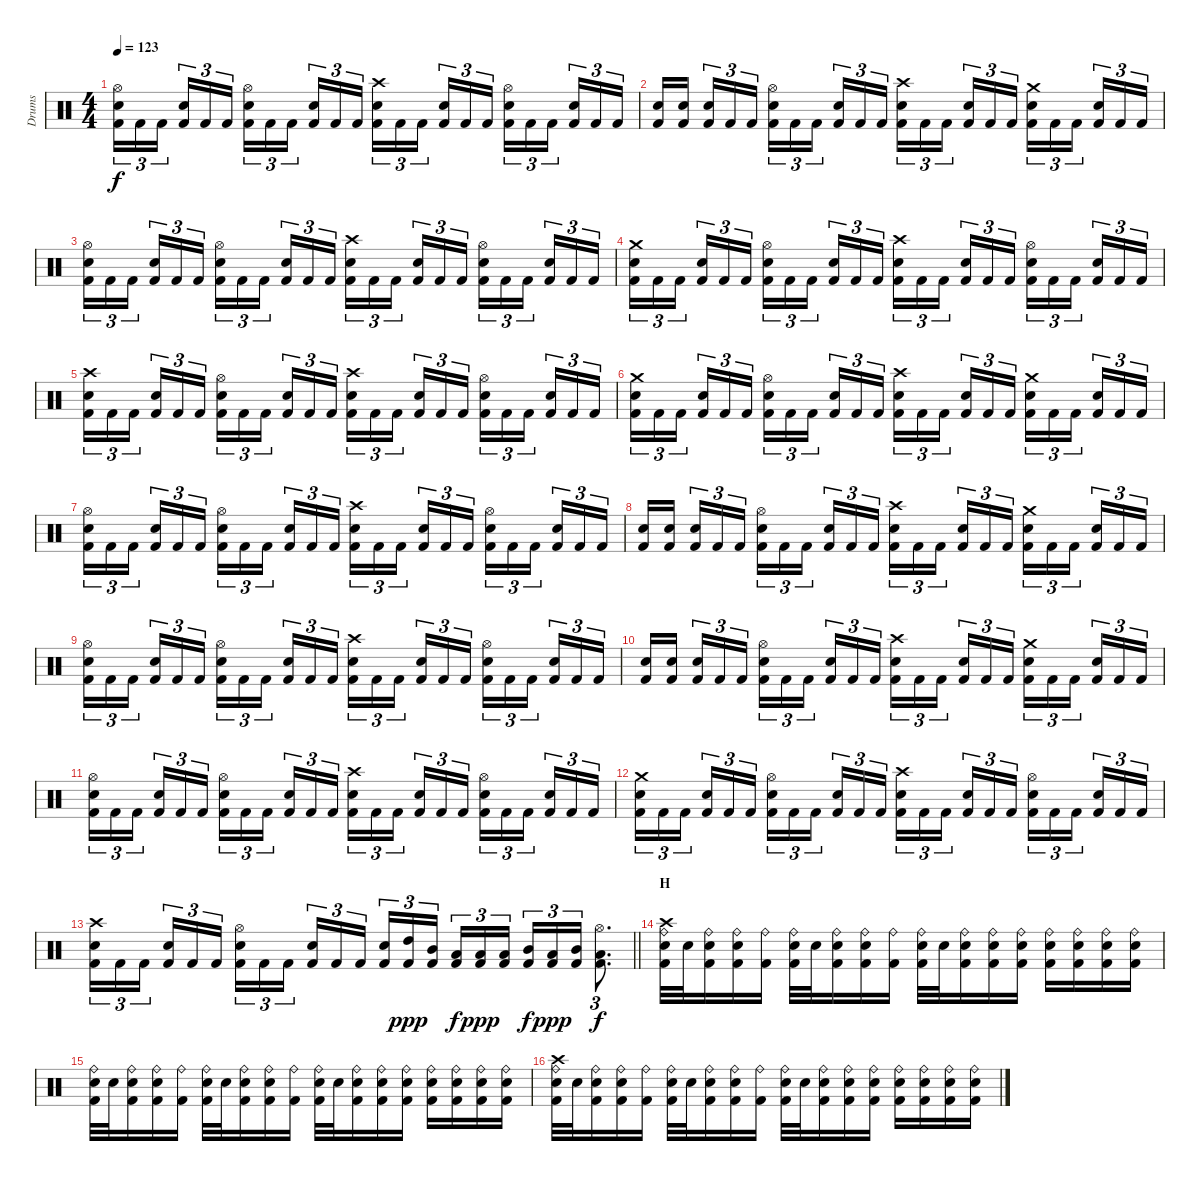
\track ("Drums" "Drums") {instrument percussion}
\staff {score}
\articulation defaults
\ts (4 4)
\tempo 123
\clef neutral
\ks c
("Hi-Hat (open)" "Snare (hit) 2" "Kick (hit) 2").16{tu (3 2) dy f} "Kick (hit) 2".16{tu (3 2)} "Kick (hit) 2".16{tu (3 2) beam splitsecondary} ("Snare (hit) 2" "Kick (hit) 2").16{tu (3 2)} "Kick (hit) 2".16{tu (3 2)} "Kick (hit) 2".16{tu (3 2)} ("Hi-Hat (open)" "Snare (hit) 2" "Kick (hit) 2").16{tu (3 2)} "Kick (hit) 2".16{tu (3 2)} "Kick (hit) 2".16{tu (3 2) beam splitsecondary} ("Snare (hit) 2" "Kick (hit) 2").16{tu (3 2)} "Kick (hit) 2".16{tu (3 2)} "Kick (hit) 2".16{tu (3 2)} ("Crash high (hit)" "Snare (hit) 2" "Kick (hit) 2").16{tu (3 2)} "Kick (hit) 2".16{tu (3 2)} "Kick (hit) 2".16{tu (3 2) beam splitsecondary} ("Snare (hit) 2" "Kick (hit) 2").16{tu (3 2)} "Kick (hit) 2".16{tu (3 2)} "Kick (hit) 2".16{tu (3 2)} ("Hi-Hat (open)" "Snare (hit) 2" "Kick (hit) 2").16{tu (3 2)} "Kick (hit) 2".16{tu (3 2)} "Kick (hit) 2".16{tu (3 2) beam splitsecondary} ("Snare (hit) 2" "Kick (hit) 2").16{tu (3 2)} "Kick (hit) 2".16{tu (3 2)} "Kick (hit) 2".16{tu (3 2)} |
("Snare (hit) 2" "Kick (hit) 2").16 ("Snare (hit) 2" "Kick (hit) 2").16{beam splitsecondary} ("Snare (hit) 2" "Kick (hit) 2").16{tu (3 2)} "Kick (hit) 2".16{tu (3 2)} "Kick (hit) 2".16{tu (3 2)} ("Hi-Hat (open)" "Snare (hit) 2" "Kick (hit) 2").16{tu (3 2)} "Kick (hit) 2".16{tu (3 2)} "Kick (hit) 2".16{tu (3 2) beam splitsecondary} ("Snare (hit) 2" "Kick (hit) 2").16{tu (3 2)} "Kick (hit) 2".16{tu (3 2)} "Kick (hit) 2".16{tu (3 2)} ("Crash high (hit)" "Snare (hit) 2" "Kick (hit) 2").16{tu (3 2)} "Kick (hit) 2".16{tu (3 2)} "Kick (hit) 2".16{tu (3 2) beam splitsecondary} ("Snare (hit) 2" "Kick (hit) 2").16{tu (3 2)} "Kick (hit) 2".16{tu (3 2)} "Kick (hit) 2".16{tu (3 2)} ("Crash medium (hit)" "Snare (hit) 2" "Kick (hit) 2").16{tu (3 2)} "Kick (hit) 2".16{tu (3 2)} "Kick (hit) 2".16{tu (3 2) beam splitsecondary} ("Snare (hit) 2" "Kick (hit) 2").16{tu (3 2)} "Kick (hit) 2".16{tu (3 2)} "Kick (hit) 2".16{tu (3 2)} |
("Hi-Hat (open)" "Snare (hit) 2" "Kick (hit) 2").16{tu (3 2)} "Kick (hit) 2".16{tu (3 2)} "Kick (hit) 2".16{tu (3 2) beam splitsecondary} ("Snare (hit) 2" "Kick (hit) 2").16{tu (3 2)} "Kick (hit) 2".16{tu (3 2)} "Kick (hit) 2".16{tu (3 2)} ("Hi-Hat (open)" "Snare (hit) 2" "Kick (hit) 2").16{tu (3 2)} "Kick (hit) 2".16{tu (3 2)} "Kick (hit) 2".16{tu (3 2) beam splitsecondary} ("Snare (hit) 2" "Kick (hit) 2").16{tu (3 2)} "Kick (hit) 2".16{tu (3 2)} "Kick (hit) 2".16{tu (3 2)} ("Crash high (hit)" "Snare (hit) 2" "Kick (hit) 2").16{tu (3 2)} "Kick (hit) 2".16{tu (3 2)} "Kick (hit) 2".16{tu (3 2) beam splitsecondary} ("Snare (hit) 2" "Kick (hit) 2").16{tu (3 2)} "Kick (hit) 2".16{tu (3 2)} "Kick (hit) 2".16{tu (3 2)} ("Hi-Hat (open)" "Snare (hit) 2" "Kick (hit) 2").16{tu (3 2)} "Kick (hit) 2".16{tu (3 2)} "Kick (hit) 2".16{tu (3 2) beam splitsecondary} ("Snare (hit) 2" "Kick (hit) 2").16{tu (3 2)} "Kick (hit) 2".16{tu (3 2)} "Kick (hit) 2".16{tu (3 2)} |
("Crash medium (hit)" "Snare (hit) 2" "Kick (hit) 2").16{tu (3 2)} "Kick (hit) 2".16{tu (3 2)} "Kick (hit) 2".16{tu (3 2) beam splitsecondary} ("Snare (hit) 2" "Kick (hit) 2").16{tu (3 2)} "Kick (hit) 2".16{tu (3 2)} "Kick (hit) 2".16{tu (3 2)} ("Hi-Hat (open)" "Snare (hit) 2" "Kick (hit) 2").16{tu (3 2)} "Kick (hit) 2".16{tu (3 2)} "Kick (hit) 2".16{tu (3 2) beam splitsecondary} ("Snare (hit) 2" "Kick (hit) 2").16{tu (3 2)} "Kick (hit) 2".16{tu (3 2)} "Kick (hit) 2".16{tu (3 2)} ("Crash high (hit)" "Snare (hit) 2" "Kick (hit) 2").16{tu (3 2)} "Kick (hit) 2".16{tu (3 2)} "Kick (hit) 2".16{tu (3 2) beam splitsecondary} ("Snare (hit) 2" "Kick (hit) 2").16{tu (3 2)} "Kick (hit) 2".16{tu (3 2)} "Kick (hit) 2".16{tu (3 2)} ("Hi-Hat (open)" "Snare (hit) 2" "Kick (hit) 2").16{tu (3 2)} "Kick (hit) 2".16{tu (3 2)} "Kick (hit) 2".16{tu (3 2) beam splitsecondary} ("Snare (hit) 2" "Kick (hit) 2").16{tu (3 2)} "Kick (hit) 2".16{tu (3 2)} "Kick (hit) 2".16{tu (3 2)} |
("Crash high (hit)" "Snare (hit) 2" "Kick (hit) 2").16{tu (3 2)} "Kick (hit) 2".16{tu (3 2)} "Kick (hit) 2".16{tu (3 2) beam splitsecondary} ("Snare (hit) 2" "Kick (hit) 2").16{tu (3 2)} "Kick (hit) 2".16{tu (3 2)} "Kick (hit) 2".16{tu (3 2)} ("Hi-Hat (open)" "Snare (hit) 2" "Kick (hit) 2").16{tu (3 2)} "Kick (hit) 2".16{tu (3 2)} "Kick (hit) 2".16{tu (3 2) beam splitsecondary} ("Snare (hit) 2" "Kick (hit) 2").16{tu (3 2)} "Kick (hit) 2".16{tu (3 2)} "Kick (hit) 2".16{tu (3 2)} ("Crash high (hit)" "Snare (hit) 2" "Kick (hit) 2").16{tu (3 2)} "Kick (hit) 2".16{tu (3 2)} "Kick (hit) 2".16{tu (3 2) beam splitsecondary} ("Snare (hit) 2" "Kick (hit) 2").16{tu (3 2)} "Kick (hit) 2".16{tu (3 2)} "Kick (hit) 2".16{tu (3 2)} ("Hi-Hat (open)" "Snare (hit) 2" "Kick (hit) 2").16{tu (3 2)} "Kick (hit) 2".16{tu (3 2)} "Kick (hit) 2".16{tu (3 2) beam splitsecondary} ("Snare (hit) 2" "Kick (hit) 2").16{tu (3 2)} "Kick (hit) 2".16{tu (3 2)} "Kick (hit) 2".16{tu (3 2)} |
("Crash medium (hit)" "Snare (hit) 2" "Kick (hit) 2").16{tu (3 2)} "Kick (hit) 2".16{tu (3 2)} "Kick (hit) 2".16{tu (3 2) beam splitsecondary} ("Snare (hit) 2" "Kick (hit) 2").16{tu (3 2)} "Kick (hit) 2".16{tu (3 2)} "Kick (hit) 2".16{tu (3 2)} ("Hi-Hat (open)" "Snare (hit) 2" "Kick (hit) 2").16{tu (3 2)} "Kick (hit) 2".16{tu (3 2)} "Kick (hit) 2".16{tu (3 2) beam splitsecondary} ("Snare (hit) 2" "Kick (hit) 2").16{tu (3 2)} "Kick (hit) 2".16{tu (3 2)} "Kick (hit) 2".16{tu (3 2)} ("Crash high (hit)" "Snare (hit) 2" "Kick (hit) 2").16{tu (3 2)} "Kick (hit) 2".16{tu (3 2)} "Kick (hit) 2".16{tu (3 2) beam splitsecondary} ("Snare (hit) 2" "Kick (hit) 2").16{tu (3 2)} "Kick (hit) 2".16{tu (3 2)} "Kick (hit) 2".16{tu (3 2)} ("Crash medium (hit)" "Snare (hit) 2" "Kick (hit) 2").16{tu (3 2)} "Kick (hit) 2".16{tu (3 2)} "Kick (hit) 2".16{tu (3 2) beam splitsecondary} ("Snare (hit) 2" "Kick (hit) 2").16{tu (3 2)} "Kick (hit) 2".16{tu (3 2)} "Kick (hit) 2".16{tu (3 2)} |
("Hi-Hat (open)" "Snare (hit) 2" "Kick (hit) 2").16{tu (3 2)} "Kick (hit) 2".16{tu (3 2)} "Kick (hit) 2".16{tu (3 2) beam splitsecondary} ("Snare (hit) 2" "Kick (hit) 2").16{tu (3 2)} "Kick (hit) 2".16{tu (3 2)} "Kick (hit) 2".16{tu (3 2)} ("Hi-Hat (open)" "Snare (hit) 2" "Kick (hit) 2").16{tu (3 2)} "Kick (hit) 2".16{tu (3 2)} "Kick (hit) 2".16{tu (3 2) beam splitsecondary} ("Snare (hit) 2" "Kick (hit) 2").16{tu (3 2)} "Kick (hit) 2".16{tu (3 2)} "Kick (hit) 2".16{tu (3 2)} ("Crash high (hit)" "Snare (hit) 2" "Kick (hit) 2").16{tu (3 2)} "Kick (hit) 2".16{tu (3 2)} "Kick (hit) 2".16{tu (3 2) beam splitsecondary} ("Snare (hit) 2" "Kick (hit) 2").16{tu (3 2)} "Kick (hit) 2".16{tu (3 2)} "Kick (hit) 2".16{tu (3 2)} ("Hi-Hat (open)" "Snare (hit) 2" "Kick (hit) 2").16{tu (3 2)} "Kick (hit) 2".16{tu (3 2)} "Kick (hit) 2".16{tu (3 2) beam splitsecondary} ("Snare (hit) 2" "Kick (hit) 2").16{tu (3 2)} "Kick (hit) 2".16{tu (3 2)} "Kick (hit) 2".16{tu (3 2)} |
("Snare (hit) 2" "Kick (hit) 2").16 ("Snare (hit) 2" "Kick (hit) 2").16{beam splitsecondary} ("Snare (hit) 2" "Kick (hit) 2").16{tu (3 2)} "Kick (hit) 2".16{tu (3 2)} "Kick (hit) 2".16{tu (3 2)} ("Hi-Hat (open)" "Snare (hit) 2" "Kick (hit) 2").16{tu (3 2)} "Kick (hit) 2".16{tu (3 2)} "Kick (hit) 2".16{tu (3 2) beam splitsecondary} ("Snare (hit) 2" "Kick (hit) 2").16{tu (3 2)} "Kick (hit) 2".16{tu (3 2)} "Kick (hit) 2".16{tu (3 2)} ("Crash high (hit)" "Snare (hit) 2" "Kick (hit) 2").16{tu (3 2)} "Kick (hit) 2".16{tu (3 2)} "Kick (hit) 2".16{tu (3 2) beam splitsecondary} ("Snare (hit) 2" "Kick (hit) 2").16{tu (3 2)} "Kick (hit) 2".16{tu (3 2)} "Kick (hit) 2".16{tu (3 2)} ("Crash medium (hit)" "Snare (hit) 2" "Kick (hit) 2").16{tu (3 2)} "Kick (hit) 2".16{tu (3 2)} "Kick (hit) 2".16{tu (3 2) beam splitsecondary} ("Snare (hit) 2" "Kick (hit) 2").16{tu (3 2)} "Kick (hit) 2".16{tu (3 2)} "Kick (hit) 2".16{tu (3 2)} |
("Hi-Hat (open)" "Snare (hit) 2" "Kick (hit) 2").16{tu (3 2)} "Kick (hit) 2".16{tu (3 2)} "Kick (hit) 2".16{tu (3 2) beam splitsecondary} ("Snare (hit) 2" "Kick (hit) 2").16{tu (3 2)} "Kick (hit) 2".16{tu (3 2)} "Kick (hit) 2".16{tu (3 2)} ("Hi-Hat (open)" "Snare (hit) 2" "Kick (hit) 2").16{tu (3 2)} "Kick (hit) 2".16{tu (3 2)} "Kick (hit) 2".16{tu (3 2) beam splitsecondary} ("Snare (hit) 2" "Kick (hit) 2").16{tu (3 2)} "Kick (hit) 2".16{tu (3 2)} "Kick (hit) 2".16{tu (3 2)} ("Crash high (hit)" "Snare (hit) 2" "Kick (hit) 2").16{tu (3 2)} "Kick (hit) 2".16{tu (3 2)} "Kick (hit) 2".16{tu (3 2) beam splitsecondary} ("Snare (hit) 2" "Kick (hit) 2").16{tu (3 2)} "Kick (hit) 2".16{tu (3 2)} "Kick (hit) 2".16{tu (3 2)} ("Hi-Hat (open)" "Snare (hit) 2" "Kick (hit) 2").16{tu (3 2)} "Kick (hit) 2".16{tu (3 2)} "Kick (hit) 2".16{tu (3 2) beam splitsecondary} ("Snare (hit) 2" "Kick (hit) 2").16{tu (3 2)} "Kick (hit) 2".16{tu (3 2)} "Kick (hit) 2".16{tu (3 2)} |
("Snare (hit) 2" "Kick (hit) 2").16 ("Snare (hit) 2" "Kick (hit) 2").16{beam splitsecondary} ("Snare (hit) 2" "Kick (hit) 2").16{tu (3 2)} "Kick (hit) 2".16{tu (3 2)} "Kick (hit) 2".16{tu (3 2)} ("Hi-Hat (open)" "Snare (hit) 2" "Kick (hit) 2").16{tu (3 2)} "Kick (hit) 2".16{tu (3 2)} "Kick (hit) 2".16{tu (3 2) beam splitsecondary} ("Snare (hit) 2" "Kick (hit) 2").16{tu (3 2)} "Kick (hit) 2".16{tu (3 2)} "Kick (hit) 2".16{tu (3 2)} ("Crash high (hit)" "Snare (hit) 2" "Kick (hit) 2").16{tu (3 2)} "Kick (hit) 2".16{tu (3 2)} "Kick (hit) 2".16{tu (3 2) beam splitsecondary} ("Snare (hit) 2" "Kick (hit) 2").16{tu (3 2)} "Kick (hit) 2".16{tu (3 2)} "Kick (hit) 2".16{tu (3 2)} ("Crash medium (hit)" "Snare (hit) 2" "Kick (hit) 2").16{tu (3 2)} "Kick (hit) 2".16{tu (3 2)} "Kick (hit) 2".16{tu (3 2) beam splitsecondary} ("Snare (hit) 2" "Kick (hit) 2").16{tu (3 2)} "Kick (hit) 2".16{tu (3 2)} "Kick (hit) 2".16{tu (3 2)} |
("Hi-Hat (open)" "Snare (hit) 2" "Kick (hit) 2").16{tu (3 2)} "Kick (hit) 2".16{tu (3 2)} "Kick (hit) 2".16{tu (3 2) beam splitsecondary} ("Snare (hit) 2" "Kick (hit) 2").16{tu (3 2)} "Kick (hit) 2".16{tu (3 2)} "Kick (hit) 2".16{tu (3 2)} ("Hi-Hat (open)" "Snare (hit) 2" "Kick (hit) 2").16{tu (3 2)} "Kick (hit) 2".16{tu (3 2)} "Kick (hit) 2".16{tu (3 2) beam splitsecondary} ("Snare (hit) 2" "Kick (hit) 2").16{tu (3 2)} "Kick (hit) 2".16{tu (3 2)} "Kick (hit) 2".16{tu (3 2)} ("Crash high (hit)" "Snare (hit) 2" "Kick (hit) 2").16{tu (3 2)} "Kick (hit) 2".16{tu (3 2)} "Kick (hit) 2".16{tu (3 2) beam splitsecondary} ("Snare (hit) 2" "Kick (hit) 2").16{tu (3 2)} "Kick (hit) 2".16{tu (3 2)} "Kick (hit) 2".16{tu (3 2)} ("Hi-Hat (open)" "Snare (hit) 2" "Kick (hit) 2").16{tu (3 2)} "Kick (hit) 2".16{tu (3 2)} "Kick (hit) 2".16{tu (3 2) beam splitsecondary} ("Snare (hit) 2" "Kick (hit) 2").16{tu (3 2)} "Kick (hit) 2".16{tu (3 2)} "Kick (hit) 2".16{tu (3 2)} |
("Crash medium (hit)" "Snare (hit) 2" "Kick (hit) 2").16{tu (3 2)} "Kick (hit) 2".16{tu (3 2)} "Kick (hit) 2".16{tu (3 2) beam splitsecondary} ("Snare (hit) 2" "Kick (hit) 2").16{tu (3 2)} "Kick (hit) 2".16{tu (3 2)} "Kick (hit) 2".16{tu (3 2)} ("Hi-Hat (open)" "Snare (hit) 2" "Kick (hit) 2").16{tu (3 2)} "Kick (hit) 2".16{tu (3 2)} "Kick (hit) 2".16{tu (3 2) beam splitsecondary} ("Snare (hit) 2" "Kick (hit) 2").16{tu (3 2)} "Kick (hit) 2".16{tu (3 2)} "Kick (hit) 2".16{tu (3 2)} ("Crash high (hit)" "Snare (hit) 2" "Kick (hit) 2").16{tu (3 2)} "Kick (hit) 2".16{tu (3 2)} "Kick (hit) 2".16{tu (3 2) beam splitsecondary} ("Snare (hit) 2" "Kick (hit) 2").16{tu (3 2)} "Kick (hit) 2".16{tu (3 2)} "Kick (hit) 2".16{tu (3 2)} ("Hi-Hat (open)" "Snare (hit) 2" "Kick (hit) 2").16{tu (3 2)} "Kick (hit) 2".16{tu (3 2)} "Kick (hit) 2".16{tu (3 2) beam splitsecondary} ("Snare (hit) 2" "Kick (hit) 2").16{tu (3 2)} "Kick (hit) 2".16{tu (3 2)} "Kick (hit) 2".16{tu (3 2)} |
\barLineRight lightlight
("Crash high (hit)" "Snare (hit) 2" "Kick (hit) 2").16{tu (3 2)} "Kick (hit) 2".16{tu (3 2)} "Kick (hit) 2".16{tu (3 2) beam splitsecondary} ("Snare (hit) 2" "Kick (hit) 2").16{tu (3 2)} "Kick (hit) 2".16{tu (3 2)} "Kick (hit) 2".16{tu (3 2)} ("Hi-Hat (open)" "Snare (hit) 2" "Kick (hit) 2").16{tu (3 2)} "Kick (hit) 2".16{tu (3 2)} "Kick (hit) 2".16{tu (3 2) beam splitsecondary} ("Snare (hit) 2" "Kick (hit) 2").16{tu (3 2)} "Kick (hit) 2".16{tu (3 2)} "Kick (hit) 2".16{tu (3 2)} ("Snare (hit) 2" "Kick (hit) 2").16{tu (3 2)} ("High Tom (hit)" "Kick (hit) 2").16{tu (3 2) dy ppp} ("Mid Tom (hit)" "Kick (hit) 2").16{tu (3 2) beam splitsecondary} ("Low Tom (hit)" "Kick (hit) 2").16{tu (3 2) dy f} ("Low Floor Tom (hit)" "Kick (hit) 2").16{tu (3 2) dy ppp} ("Low Tom (hit)" "Kick (hit) 2").16{tu (3 2)} ("Mid Tom (hit)" "Kick (hit) 2").16{tu (3 2) dy f} ("Low Tom (hit)" "Kick (hit) 2").16{tu (3 2) dy ppp} ("Mid Tom (hit)" "Kick (hit) 2").16{tu (3 2)} ("Hi-Hat (open)" "Low Tom (hit)" "Kick (hit) 2").8{d tu (3 2) dy f} |
\section ("" "H")
("Crash high (hit)" "Ride (bell)" "Snare (hit) 2" "Kick (hit) 2").32 "Snare (hit) 2".32 ("Ride (bell)" "Snare (hit) 2" "Kick (hit) 2").16 ("Ride (bell)" "Snare (hit) 2" "Kick (hit) 2").16 ("Ride (bell)" "Kick (hit) 2").16 ("Ride (bell)" "Snare (hit) 2" "Kick (hit) 2").32 "Snare (hit) 2".32 ("Ride (bell)" "Snare (hit) 2" "Kick (hit) 2").16 ("Ride (bell)" "Snare (hit) 2" "Kick (hit) 2").16 ("Ride (bell)" "Kick (hit) 2").16 ("Ride (bell)" "Snare (hit) 2" "Kick (hit) 2").32 "Snare (hit) 2".32 ("Ride (bell)" "Snare (hit) 2" "Kick (hit) 2").16 ("Ride (bell)" "Snare (hit) 2" "Kick (hit) 2").16 ("Ride (bell)" "Snare (hit) 2" "Kick (hit) 2").16 ("Ride (bell)" "Snare (hit) 2" "Kick (hit) 2").16 ("Ride (bell)" "Snare (hit) 2" "Kick (hit) 2").16 ("Ride (bell)" "Snare (hit) 2" "Kick (hit) 2").16 ("Ride (bell)" "Snare (hit) 2" "Kick (hit) 2").16 |
("Ride (bell)" "Snare (hit) 2" "Kick (hit) 2").32 "Snare (hit) 2".32 ("Ride (bell)" "Snare (hit) 2" "Kick (hit) 2").16 ("Ride (bell)" "Snare (hit) 2" "Kick (hit) 2").16 ("Ride (bell)" "Kick (hit) 2").16 ("Ride (bell)" "Snare (hit) 2" "Kick (hit) 2").32 "Snare (hit) 2".32 ("Ride (bell)" "Snare (hit) 2" "Kick (hit) 2").16 ("Ride (bell)" "Snare (hit) 2" "Kick (hit) 2").16 ("Ride (bell)" "Kick (hit) 2").16 ("Ride (bell)" "Snare (hit) 2" "Kick (hit) 2").32 "Snare (hit) 2".32 ("Ride (bell)" "Snare (hit) 2" "Kick (hit) 2").16 ("Ride (bell)" "Snare (hit) 2" "Kick (hit) 2").16 ("Ride (bell)" "Snare (hit) 2" "Kick (hit) 2").16 ("Ride (bell)" "Snare (hit) 2" "Kick (hit) 2").16 ("Ride (bell)" "Snare (hit) 2" "Kick (hit) 2").16 ("Ride (bell)" "Snare (hit) 2" "Kick (hit) 2").16 ("Ride (bell)" "Snare (hit) 2" "Kick (hit) 2").16 |
("Crash high (hit)" "Ride (bell)" "Snare (hit) 2" "Kick (hit) 2").32 "Snare (hit) 2".32 ("Ride (bell)" "Snare (hit) 2" "Kick (hit) 2").16 ("Ride (bell)" "Snare (hit) 2" "Kick (hit) 2").16 ("Ride (bell)" "Kick (hit) 2").16 ("Ride (bell)" "Snare (hit) 2" "Kick (hit) 2").32 "Snare (hit) 2".32 ("Ride (bell)" "Snare (hit) 2" "Kick (hit) 2").16 ("Ride (bell)" "Snare (hit) 2" "Kick (hit) 2").16 ("Ride (bell)" "Kick (hit) 2").16 ("Ride (bell)" "Snare (hit) 2" "Kick (hit) 2").32 "Snare (hit) 2".32 ("Ride (bell)" "Snare (hit) 2" "Kick (hit) 2").16 ("Ride (bell)" "Snare (hit) 2" "Kick (hit) 2").16 ("Ride (bell)" "Snare (hit) 2" "Kick (hit) 2").16 ("Ride (bell)" "Snare (hit) 2" "Kick (hit) 2").16 ("Ride (bell)" "Snare (hit) 2" "Kick (hit) 2").16 ("Ride (bell)" "Snare (hit) 2" "Kick (hit) 2").16 ("Ride (bell)" "Snare (hit) 2" "Kick (hit) 2").16
